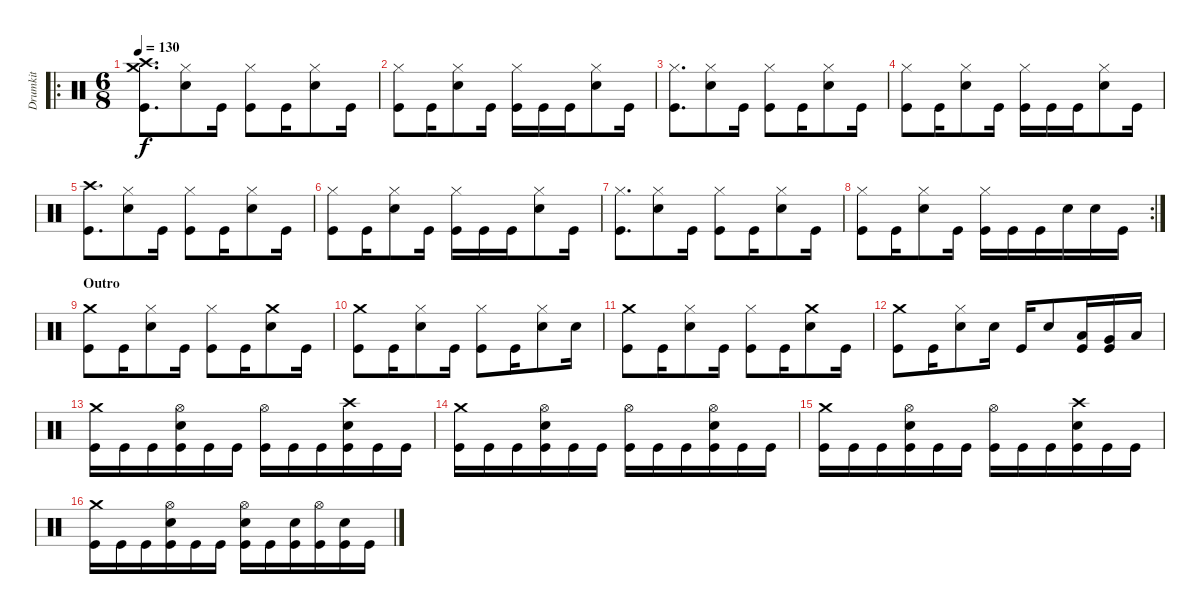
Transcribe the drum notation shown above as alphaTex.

\track ("Drumkit" "Drumkit") {instrument percussion}
\staff {score}
\articulation defaults
\ro
\ts (6 8)
\tempo 130
\clef neutral
\ks c
("Kick (hit)" "Crash high (hit)" "Crash medium (hit)").8{d dy f} ("Snare (hit) 2" "Hi-Hat (closed)").8 "Kick (hit)".16 ("Kick (hit)" "Hi-Hat (closed)").8 "Kick (hit)".16 ("Snare (hit) 2" "Hi-Hat (closed)").8 "Kick (hit)".16 |
("Kick (hit)" "Hi-Hat (closed)").8 "Kick (hit)".16 ("Snare (hit) 2" "Hi-Hat (closed)").8 "Kick (hit)".16 ("Kick (hit)" "Hi-Hat (closed)").16 "Kick (hit)".16 "Kick (hit)".16 ("Snare (hit) 2" "Hi-Hat (closed)").8 "Kick (hit)".16 |
("Kick (hit)" "Hi-Hat (closed)").8{d} ("Snare (hit) 2" "Hi-Hat (closed)").8 "Kick (hit)".16 ("Kick (hit)" "Hi-Hat (closed)").8 "Kick (hit)".16 ("Snare (hit) 2" "Hi-Hat (closed)").8 "Kick (hit)".16 |
("Kick (hit)" "Hi-Hat (closed)").8 "Kick (hit)".16 ("Snare (hit) 2" "Hi-Hat (closed)").8 "Kick (hit)".16 ("Kick (hit)" "Hi-Hat (closed)").16 "Kick (hit)".16 "Kick (hit)".16 ("Snare (hit) 2" "Hi-Hat (closed)").8 "Kick (hit)".16 |
("Kick (hit)" "Crash high (hit)").8{d} ("Snare (hit) 2" "Hi-Hat (closed)").8 "Kick (hit)".16 ("Kick (hit)" "Hi-Hat (closed)").8 "Kick (hit)".16 ("Snare (hit) 2" "Hi-Hat (closed)").8 "Kick (hit)".16 |
("Kick (hit)" "Hi-Hat (closed)").8 "Kick (hit)".16 ("Snare (hit) 2" "Hi-Hat (closed)").8 "Kick (hit)".16 ("Kick (hit)" "Hi-Hat (closed)").16 "Kick (hit)".16 "Kick (hit)".16 ("Snare (hit) 2" "Hi-Hat (closed)").8 "Kick (hit)".16 |
("Kick (hit)" "Hi-Hat (closed)").8{d} ("Snare (hit) 2" "Hi-Hat (closed)").8 "Kick (hit)".16 ("Kick (hit)" "Hi-Hat (closed)").8 "Kick (hit)".16 ("Snare (hit) 2" "Hi-Hat (closed)").8 "Kick (hit)".16 |
\rc 2
("Kick (hit)" "Hi-Hat (closed)").8 "Kick (hit)".16 ("Snare (hit) 2" "Hi-Hat (closed)").8 "Kick (hit)".16 ("Kick (hit)" "Hi-Hat (closed)").16 "Kick (hit)".16 "Kick (hit)".16 "Snare (hit) 2".16 "Snare (hit) 2".16 "Kick (hit)".16 |
\section ("" "Outro")
("Kick (hit)" "Crash medium (hit)").8 "Kick (hit)".16 ("Snare (hit) 2" "Hi-Hat (closed)").8 "Kick (hit)".16 ("Kick (hit)" "Hi-Hat (closed)").8 "Kick (hit)".16 ("Snare (hit) 2" "Crash medium (hit)").8 "Kick (hit)".16 |
("Kick (hit)" "Crash medium (hit)").8 "Kick (hit)".16 ("Snare (hit) 2" "Hi-Hat (closed)").8 "Kick (hit)".16 ("Kick (hit)" "Hi-Hat (closed)").8 "Kick (hit)".16 ("Snare (hit) 2" "Hi-Hat (closed)").8 "Snare (hit) 2".16 |
("Kick (hit)" "Crash medium (hit)").8 "Kick (hit)".16 ("Snare (hit) 2" "Hi-Hat (closed)").8 "Kick (hit)".16 ("Kick (hit)" "Hi-Hat (closed)").8 "Kick (hit)".16 ("Snare (hit) 2" "Crash medium (hit)").8 "Kick (hit)".16 |
("Kick (hit)" "Crash medium (hit)").8 "Kick (hit)".16 ("Snare (hit) 2" "Hi-Hat (closed)").8 "Snare (hit) 2".16 "Kick (hit)".16 "Snare (hit) 2".8 ("Kick (hit)" "Low Floor Tom (hit)").16 ("Kick (hit)" "Very Low Tom (hit)").16 "Low Floor Tom (hit)".16 |
("Kick (hit)" "Crash medium (hit)").16 "Kick (hit)".16 "Kick (hit)".16 ("Kick (hit)" "Snare (hit) 2" "Hi-Hat (open)").16 "Kick (hit)".16 "Kick (hit)".16 ("Kick (hit)" "Hi-Hat (open)").16 "Kick (hit)".16 "Kick (hit)".16 ("Kick (hit)" "Snare (hit) 2" "Crash high (hit)").16 "Kick (hit)".16 "Kick (hit)".16 |
("Kick (hit)" "Crash medium (hit)").16 "Kick (hit)".16 "Kick (hit)".16 ("Kick (hit)" "Snare (hit) 2" "Hi-Hat (open)").16 "Kick (hit)".16 "Kick (hit)".16 ("Kick (hit)" "Hi-Hat (open)").16 "Kick (hit)".16 "Kick (hit)".16 ("Kick (hit)" "Snare (hit) 2" "Hi-Hat (open)").16 "Kick (hit)".16 "Kick (hit)".16 |
("Kick (hit)" "Crash medium (hit)").16 "Kick (hit)".16 "Kick (hit)".16 ("Kick (hit)" "Snare (hit) 2" "Hi-Hat (open)").16 "Kick (hit)".16 "Kick (hit)".16 ("Kick (hit)" "Hi-Hat (open)").16 "Kick (hit)".16 "Kick (hit)".16 ("Kick (hit)" "Snare (hit) 2" "Crash high (hit)").16 "Kick (hit)".16 "Kick (hit)".16 |
("Kick (hit)" "Crash medium (hit)").16 "Kick (hit)".16 "Kick (hit)".16 ("Kick (hit)" "Snare (hit) 2" "Hi-Hat (open)").16 "Kick (hit)".16 "Kick (hit)".16 ("Kick (hit)" "Snare (hit) 2" "Hi-Hat (open)").16 "Kick (hit)".16 ("Kick (hit)" "Snare (hit) 2").16 ("Kick (hit)" "Hi-Hat (open)").16 ("Kick (hit)" "Snare (hit) 2").16 "Kick (hit)".16
